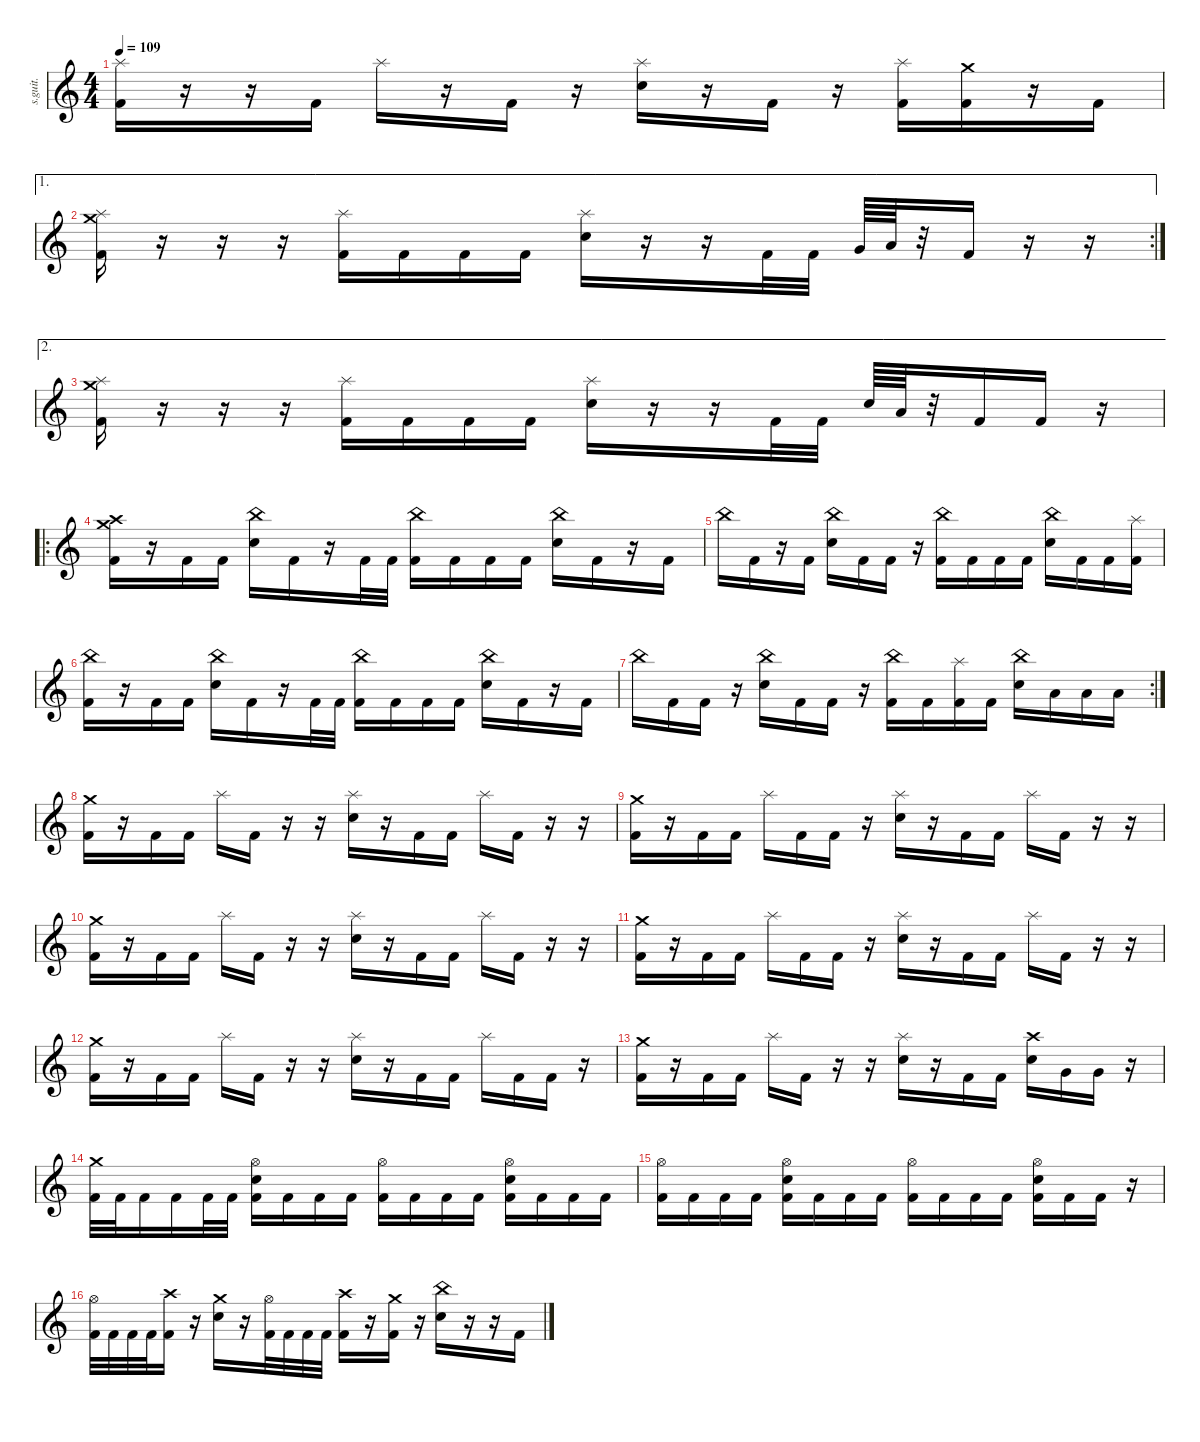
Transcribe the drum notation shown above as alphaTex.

\defaultSystemsLayout 4
\hideDynamics
\bracketExtendMode nobrackets
\track ("Drumkit" "s.guit.") {instrument percussion}
\staff {score}
\articulation defaults
\ts (4 4)
\tempo 109
\clef g2
\ks c
("Splash (hit)" "Kick (hit) 2").16{lyrics (0 "") lyrics (1 "") lyrics (2 "") lyrics (3 "") lyrics (4 "") dy f} r.16 r.16 "Kick (hit) 2".16{lyrics (0 "") lyrics (1 "") lyrics (2 "") lyrics (3 "") lyrics (4 "")} "Splash (hit)".16{lyrics (0 "") lyrics (1 "") lyrics (2 "") lyrics (3 "") lyrics (4 "")} r.16 "Kick (hit) 2".16{lyrics (0 "") lyrics (1 "") lyrics (2 "") lyrics (3 "") lyrics (4 "")} r.16 ("Splash (hit)" "Electric Snare (hit)").16{lyrics (0 "") lyrics (1 "") lyrics (2 "") lyrics (3 "") lyrics (4 "")} r.16 "Kick (hit) 2".16{lyrics (0 "") lyrics (1 "") lyrics (2 "") lyrics (3 "") lyrics (4 "")} r.16 ("Splash (hit)" "Kick (hit) 2").16{lyrics (0 "") lyrics (1 "") lyrics (2 "") lyrics (3 "") lyrics (4 "")} ("Crash medium (hit)" "Kick (hit) 2").16{lyrics (0 "") lyrics (1 "") lyrics (2 "") lyrics (3 "") lyrics (4 "")} r.16 "Kick (hit) 2".16{lyrics (0 "") lyrics (1 "") lyrics (2 "") lyrics (3 "") lyrics (4 "")} |
\ae 1
\rc 2
("Crash medium (hit)" "Splash (hit)" "Kick (hit) 2").16{lyrics (0 "") lyrics (1 "") lyrics (2 "") lyrics (3 "") lyrics (4 "")} r.16 r.16 r.16 ("Splash (hit)" "Kick (hit) 2").16{lyrics (0 "") lyrics (1 "") lyrics (2 "") lyrics (3 "") lyrics (4 "")} "Kick (hit) 2".16{lyrics (0 "") lyrics (1 "") lyrics (2 "") lyrics (3 "") lyrics (4 "")} "Kick (hit) 2".16{lyrics (0 "") lyrics (1 "") lyrics (2 "") lyrics (3 "") lyrics (4 "")} "Kick (hit) 2".16{lyrics (0 "") lyrics (1 "") lyrics (2 "") lyrics (3 "") lyrics (4 "")} ("Splash (hit)" "Electric Snare (hit)").16{lyrics (0 "") lyrics (1 "") lyrics (2 "") lyrics (3 "") lyrics (4 "")} r.16 r.16 "Kick (hit) 2".32{lyrics (0 "") lyrics (1 "") lyrics (2 "") lyrics (3 "") lyrics (4 "")} "Kick (hit) 2".32{lyrics (0 "") lyrics (1 "") lyrics (2 "") lyrics (3 "") lyrics (4 "")} "Very Low Tom (hit)".64{lyrics (0 "") lyrics (1 "") lyrics (2 "") lyrics (3 "") lyrics (4 "")} "Low Tom (hit)".64{lyrics (0 "") lyrics (1 "") lyrics (2 "") lyrics (3 "") lyrics (4 "")} r.32 "Kick (hit) 2".16{lyrics (0 "") lyrics (1 "") lyrics (2 "") lyrics (3 "") lyrics (4 "")} r.16 r.16 |
\ae 2
("Crash medium (hit)" "Splash (hit)" "Kick (hit) 2").16{lyrics (0 "") lyrics (1 "") lyrics (2 "") lyrics (3 "") lyrics (4 "")} r.16 r.16 r.16 ("Splash (hit)" "Kick (hit) 2").16{lyrics (0 "") lyrics (1 "") lyrics (2 "") lyrics (3 "") lyrics (4 "")} "Kick (hit) 2".16{lyrics (0 "") lyrics (1 "") lyrics (2 "") lyrics (3 "") lyrics (4 "")} "Kick (hit) 2".16{lyrics (0 "") lyrics (1 "") lyrics (2 "") lyrics (3 "") lyrics (4 "")} "Kick (hit) 2".16{lyrics (0 "") lyrics (1 "") lyrics (2 "") lyrics (3 "") lyrics (4 "")} ("Splash (hit)" "Electric Snare (hit)").16{lyrics (0 "") lyrics (1 "") lyrics (2 "") lyrics (3 "") lyrics (4 "")} r.16 r.16 "Kick (hit) 2".32{lyrics (0 "") lyrics (1 "") lyrics (2 "") lyrics (3 "") lyrics (4 "")} "Kick (hit) 2".32{lyrics (0 "") lyrics (1 "") lyrics (2 "") lyrics (3 "") lyrics (4 "")} "Electric Snare (hit)".64{lyrics (0 "") lyrics (1 "") lyrics (2 "") lyrics (3 "") lyrics (4 "")} "Low Floor Tom (hit)".64{lyrics (0 "") lyrics (1 "") lyrics (2 "") lyrics (3 "") lyrics (4 "")} r.32 "Kick (hit) 2".16{lyrics (0 "") lyrics (1 "") lyrics (2 "") lyrics (3 "") lyrics (4 "")} "Kick (hit) 2".16{lyrics (0 "") lyrics (1 "") lyrics (2 "") lyrics (3 "") lyrics (4 "")} r.16 |
\ro
("Crash high (hit)" "Crash medium (hit)" "Kick (hit) 2").16{lyrics (0 "") lyrics (1 "") lyrics (2 "") lyrics (3 "") lyrics (4 "")} r.16 "Kick (hit) 2".16{lyrics (0 "") lyrics (1 "") lyrics (2 "") lyrics (3 "") lyrics (4 "")} "Kick (hit) 2".16{lyrics (0 "") lyrics (1 "") lyrics (2 "") lyrics (3 "") lyrics (4 "")} ("China (hit)" "Electric Snare (hit)").16{lyrics (0 "") lyrics (1 "") lyrics (2 "") lyrics (3 "") lyrics (4 "")} "Kick (hit) 2".16{lyrics (0 "") lyrics (1 "") lyrics (2 "") lyrics (3 "") lyrics (4 "")} r.16 "Kick (hit) 2".32{lyrics (0 "") lyrics (1 "") lyrics (2 "") lyrics (3 "") lyrics (4 "")} "Kick (hit) 2".32{lyrics (0 "") lyrics (1 "") lyrics (2 "") lyrics (3 "") lyrics (4 "")} ("China (hit)" "Kick (hit) 2").16{lyrics (0 "") lyrics (1 "") lyrics (2 "") lyrics (3 "") lyrics (4 "")} "Kick (hit) 2".16{lyrics (0 "") lyrics (1 "") lyrics (2 "") lyrics (3 "") lyrics (4 "")} "Kick (hit) 2".16{lyrics (0 "") lyrics (1 "") lyrics (2 "") lyrics (3 "") lyrics (4 "")} "Kick (hit) 2".16{lyrics (0 "") lyrics (1 "") lyrics (2 "") lyrics (3 "") lyrics (4 "")} ("China (hit)" "Electric Snare (hit)").16{lyrics (0 "") lyrics (1 "") lyrics (2 "") lyrics (3 "") lyrics (4 "")} "Kick (hit) 2".16{lyrics (0 "") lyrics (1 "") lyrics (2 "") lyrics (3 "") lyrics (4 "")} r.16 "Kick (hit) 2".16{lyrics (0 "") lyrics (1 "") lyrics (2 "") lyrics (3 "") lyrics (4 "")} |
"China (hit)".16{lyrics (0 "") lyrics (1 "") lyrics (2 "") lyrics (3 "") lyrics (4 "")} "Kick (hit) 2".16{lyrics (0 "") lyrics (1 "") lyrics (2 "") lyrics (3 "") lyrics (4 "")} r.16 "Kick (hit) 2".16{lyrics (0 "") lyrics (1 "") lyrics (2 "") lyrics (3 "") lyrics (4 "")} ("China (hit)" "Electric Snare (hit)").16{lyrics (0 "") lyrics (1 "") lyrics (2 "") lyrics (3 "") lyrics (4 "")} "Kick (hit) 2".16{lyrics (0 "") lyrics (1 "") lyrics (2 "") lyrics (3 "") lyrics (4 "")} "Kick (hit) 2".16{lyrics (0 "") lyrics (1 "") lyrics (2 "") lyrics (3 "") lyrics (4 "")} r.16 ("China (hit)" "Kick (hit) 2").16{lyrics (0 "") lyrics (1 "") lyrics (2 "") lyrics (3 "") lyrics (4 "")} "Kick (hit) 2".16{lyrics (0 "") lyrics (1 "") lyrics (2 "") lyrics (3 "") lyrics (4 "")} "Kick (hit) 2".16{lyrics (0 "") lyrics (1 "") lyrics (2 "") lyrics (3 "") lyrics (4 "")} "Kick (hit) 2".16{lyrics (0 "") lyrics (1 "") lyrics (2 "") lyrics (3 "") lyrics (4 "")} ("China (hit)" "Electric Snare (hit)").16{lyrics (0 "") lyrics (1 "") lyrics (2 "") lyrics (3 "") lyrics (4 "")} "Kick (hit) 2".16{lyrics (0 "") lyrics (1 "") lyrics (2 "") lyrics (3 "") lyrics (4 "")} "Kick (hit) 2".16{lyrics (0 "") lyrics (1 "") lyrics (2 "") lyrics (3 "") lyrics (4 "")} ("Splash (hit)" "Kick (hit) 2").16{lyrics (0 "") lyrics (1 "") lyrics (2 "") lyrics (3 "") lyrics (4 "")} |
("China (hit)" "Kick (hit) 2").16{lyrics (0 "") lyrics (1 "") lyrics (2 "") lyrics (3 "") lyrics (4 "")} r.16 "Kick (hit) 2".16{lyrics (0 "") lyrics (1 "") lyrics (2 "") lyrics (3 "") lyrics (4 "")} "Kick (hit) 2".16{lyrics (0 "") lyrics (1 "") lyrics (2 "") lyrics (3 "") lyrics (4 "")} ("China (hit)" "Electric Snare (hit)").16{lyrics (0 "") lyrics (1 "") lyrics (2 "") lyrics (3 "") lyrics (4 "")} "Kick (hit) 2".16{lyrics (0 "") lyrics (1 "") lyrics (2 "") lyrics (3 "") lyrics (4 "")} r.16 "Kick (hit) 2".32{lyrics (0 "") lyrics (1 "") lyrics (2 "") lyrics (3 "") lyrics (4 "")} "Kick (hit) 2".32{lyrics (0 "") lyrics (1 "") lyrics (2 "") lyrics (3 "") lyrics (4 "")} ("China (hit)" "Kick (hit) 2").16{lyrics (0 "") lyrics (1 "") lyrics (2 "") lyrics (3 "") lyrics (4 "")} "Kick (hit) 2".16{lyrics (0 "") lyrics (1 "") lyrics (2 "") lyrics (3 "") lyrics (4 "")} "Kick (hit) 2".16{lyrics (0 "") lyrics (1 "") lyrics (2 "") lyrics (3 "") lyrics (4 "")} "Kick (hit) 2".16{lyrics (0 "") lyrics (1 "") lyrics (2 "") lyrics (3 "") lyrics (4 "")} ("China (hit)" "Electric Snare (hit)").16{lyrics (0 "") lyrics (1 "") lyrics (2 "") lyrics (3 "") lyrics (4 "")} "Kick (hit) 2".16{lyrics (0 "") lyrics (1 "") lyrics (2 "") lyrics (3 "") lyrics (4 "")} r.16 "Kick (hit) 2".16{lyrics (0 "") lyrics (1 "") lyrics (2 "") lyrics (3 "") lyrics (4 "")} |
\rc 2 "China (hit)".16{lyrics (0 "") lyrics (1 "") lyrics (2 "") lyrics (3 "") lyrics (4 "")} "Kick (hit) 2".16{lyrics (0 "") lyrics (1 "") lyrics (2 "") lyrics (3 "") lyrics (4 "")} "Kick (hit) 2".16{lyrics (0 "") lyrics (1 "") lyrics (2 "") lyrics (3 "") lyrics (4 "")}
r.16 ("China (hit)" "Electric Snare (hit)").16{lyrics (0 "") lyrics (1 "") lyrics (2 "") lyrics (3 "") lyrics (4 "")} "Kick (hit) 2".16{lyrics (0 "") lyrics (1 "") lyrics (2 "") lyrics (3 "") lyrics (4 "")} "Kick (hit) 2".16{lyrics (0 "") lyrics (1 "") lyrics (2 "") lyrics (3 "") lyrics (4 "")} r.16 ("China (hit)" "Kick (hit) 2").16{lyrics (0 "") lyrics (1 "") lyrics (2 "") lyrics (3 "") lyrics (4 "")} "Kick (hit) 2".16{lyrics (0 "") lyrics (1 "") lyrics (2 "") lyrics (3 "") lyrics (4 "")} ("Splash (hit)" "Kick (hit) 2").16{lyrics (0 "") lyrics (1 "") lyrics (2 "") lyrics (3 "") lyrics (4 "")} "Kick (hit) 2".16{lyrics (0 "") lyrics (1 "") lyrics (2 "") lyrics (3 "") lyrics (4 "")} ("China (hit)" "Electric Snare (hit)").16{lyrics (0 "") lyrics (1 "") lyrics (2 "") lyrics (3 "") lyrics (4 "")} "Low Floor Tom (hit)".16{lyrics (0 "") lyrics (1 "") lyrics (2 "") lyrics (3 "") lyrics (4 "")} "Low Floor Tom (hit)".16{lyrics (0 "") lyrics (1 "") lyrics (2 "") lyrics (3 "") lyrics (4 "")} "Low Floor Tom (hit)".16{lyrics (0 "") lyrics (1 "") lyrics (2 "") lyrics (3 "") lyrics (4 "")} |
("Crash medium (hit)" "Kick (hit) 2").16{lyrics (0 "") lyrics (1 "") lyrics (2 "") lyrics (3 "") lyrics (4 "")} r.16 "Kick (hit) 2".16{lyrics (0 "") lyrics (1 "") lyrics (2 "") lyrics (3 "") lyrics (4 "")} "Kick (hit) 2".16{lyrics (0 "") lyrics (1 "") lyrics (2 "") lyrics (3 "") lyrics (4 "")} "Splash (hit)".16{lyrics (0 "") lyrics (1 "") lyrics (2 "") lyrics (3 "") lyrics (4 "")} "Kick (hit) 2".16{lyrics (0 "") lyrics (1 "") lyrics (2 "") lyrics (3 "") lyrics (4 "")} r.16 r.16 ("Splash (hit)" "Electric Snare (hit)").16{lyrics (0 "") lyrics (1 "") lyrics (2 "") lyrics (3 "") lyrics (4 "")} r.16 "Kick (hit) 2".16{lyrics (0 "") lyrics (1 "") lyrics (2 "") lyrics (3 "") lyrics (4 "")} "Kick (hit) 2".16{lyrics (0 "") lyrics (1 "") lyrics (2 "") lyrics (3 "") lyrics (4 "")} "Splash (hit)".16{lyrics (0 "") lyrics (1 "") lyrics (2 "") lyrics (3 "") lyrics (4 "")} "Kick (hit) 2".16{lyrics (0 "") lyrics (1 "") lyrics (2 "") lyrics (3 "") lyrics (4 "")} r.16 r.16 |
("Crash medium (hit)" "Kick (hit) 2").16{lyrics (0 "") lyrics (1 "") lyrics (2 "") lyrics (3 "") lyrics (4 "")} r.16 "Kick (hit) 2".16{lyrics (0 "") lyrics (1 "") lyrics (2 "") lyrics (3 "") lyrics (4 "")} "Kick (hit) 2".16{lyrics (0 "") lyrics (1 "") lyrics (2 "") lyrics (3 "") lyrics (4 "")} "Splash (hit)".16{lyrics (0 "") lyrics (1 "") lyrics (2 "") lyrics (3 "") lyrics (4 "")} "Kick (hit) 2".16{lyrics (0 "") lyrics (1 "") lyrics (2 "") lyrics (3 "") lyrics (4 "")} "Kick (hit) 2".16{lyrics (0 "") lyrics (1 "") lyrics (2 "") lyrics (3 "") lyrics (4 "")} r.16 ("Splash (hit)" "Electric Snare (hit)").16{lyrics (0 "") lyrics (1 "") lyrics (2 "") lyrics (3 "") lyrics (4 "")} r.16 "Kick (hit) 2".16{lyrics (0 "") lyrics (1 "") lyrics (2 "") lyrics (3 "") lyrics (4 "")} "Kick (hit) 2".16{lyrics (0 "") lyrics (1 "") lyrics (2 "") lyrics (3 "") lyrics (4 "")} "Splash (hit)".16{lyrics (0 "") lyrics (1 "") lyrics (2 "") lyrics (3 "") lyrics (4 "")} "Kick (hit) 2".16{lyrics (0 "") lyrics (1 "") lyrics (2 "") lyrics (3 "") lyrics (4 "")} r.16 r.16 |
("Crash medium (hit)" "Kick (hit) 2").16{lyrics (0 "") lyrics (1 "") lyrics (2 "") lyrics (3 "") lyrics (4 "")} r.16 "Kick (hit) 2".16{lyrics (0 "") lyrics (1 "") lyrics (2 "") lyrics (3 "") lyrics (4 "")} "Kick (hit) 2".16{lyrics (0 "") lyrics (1 "") lyrics (2 "") lyrics (3 "") lyrics (4 "")} "Splash (hit)".16{lyrics (0 "") lyrics (1 "") lyrics (2 "") lyrics (3 "") lyrics (4 "")} "Kick (hit) 2".16{lyrics (0 "") lyrics (1 "") lyrics (2 "") lyrics (3 "") lyrics (4 "")} r.16 r.16 ("Splash (hit)" "Electric Snare (hit)").16{lyrics (0 "") lyrics (1 "") lyrics (2 "") lyrics (3 "") lyrics (4 "")} r.16 "Kick (hit) 2".16{lyrics (0 "") lyrics (1 "") lyrics (2 "") lyrics (3 "") lyrics (4 "")} "Kick (hit) 2".16{lyrics (0 "") lyrics (1 "") lyrics (2 "") lyrics (3 "") lyrics (4 "")} "Splash (hit)".16{lyrics (0 "") lyrics (1 "") lyrics (2 "") lyrics (3 "") lyrics (4 "")} "Kick (hit) 2".16{lyrics (0 "") lyrics (1 "") lyrics (2 "") lyrics (3 "") lyrics (4 "")} r.16 r.16 |
("Crash medium (hit)" "Kick (hit) 2").16{lyrics (0 "") lyrics (1 "") lyrics (2 "") lyrics (3 "") lyrics (4 "")} r.16 "Kick (hit) 2".16{lyrics (0 "") lyrics (1 "") lyrics (2 "") lyrics (3 "") lyrics (4 "")} "Kick (hit) 2".16{lyrics (0 "") lyrics (1 "") lyrics (2 "") lyrics (3 "") lyrics (4 "")} "Splash (hit)".16{lyrics (0 "") lyrics (1 "") lyrics (2 "") lyrics (3 "") lyrics (4 "")} "Kick (hit) 2".16{lyrics (0 "") lyrics (1 "") lyrics (2 "") lyrics (3 "") lyrics (4 "")} "Kick (hit) 2".16{lyrics (0 "") lyrics (1 "") lyrics (2 "") lyrics (3 "") lyrics (4 "")} r.16 ("Splash (hit)" "Electric Snare (hit)").16{lyrics (0 "") lyrics (1 "") lyrics (2 "") lyrics (3 "") lyrics (4 "")} r.16 "Kick (hit) 2".16{lyrics (0 "") lyrics (1 "") lyrics (2 "") lyrics (3 "") lyrics (4 "")} "Kick (hit) 2".16{lyrics (0 "") lyrics (1 "") lyrics (2 "") lyrics (3 "") lyrics (4 "")} "Splash (hit)".16{lyrics (0 "") lyrics (1 "") lyrics (2 "") lyrics (3 "") lyrics (4 "")} "Kick (hit) 2".16{lyrics (0 "") lyrics (1 "") lyrics (2 "") lyrics (3 "") lyrics (4 "")} r.16 r.16 |
("Crash medium (hit)" "Kick (hit) 2").16{lyrics (0 "") lyrics (1 "") lyrics (2 "") lyrics (3 "") lyrics (4 "")} r.16 "Kick (hit) 2".16{lyrics (0 "") lyrics (1 "") lyrics (2 "") lyrics (3 "") lyrics (4 "")} "Kick (hit) 2".16{lyrics (0 "") lyrics (1 "") lyrics (2 "") lyrics (3 "") lyrics (4 "")} "Splash (hit)".16{lyrics (0 "") lyrics (1 "") lyrics (2 "") lyrics (3 "") lyrics (4 "")} "Kick (hit) 2".16{lyrics (0 "") lyrics (1 "") lyrics (2 "") lyrics (3 "") lyrics (4 "")} r.16 r.16 ("Splash (hit)" "Electric Snare (hit)").16{lyrics (0 "") lyrics (1 "") lyrics (2 "") lyrics (3 "") lyrics (4 "")} r.16 "Kick (hit) 2".16{lyrics (0 "") lyrics (1 "") lyrics (2 "") lyrics (3 "") lyrics (4 "")} "Kick (hit) 2".16{lyrics (0 "") lyrics (1 "") lyrics (2 "") lyrics (3 "") lyrics (4 "")} "Splash (hit)".16{lyrics (0 "") lyrics (1 "") lyrics (2 "") lyrics (3 "") lyrics (4 "")} "Kick (hit) 2".16{lyrics (0 "") lyrics (1 "") lyrics (2 "") lyrics (3 "") lyrics (4 "")} "Kick (hit) 2".16{lyrics (0 "") lyrics (1 "") lyrics (2 "") lyrics (3 "") lyrics (4 "")} r.16 |
("Crash medium (hit)" "Kick (hit) 2").16{lyrics (0 "") lyrics (1 "") lyrics (2 "") lyrics (3 "") lyrics (4 "")} r.16 "Kick (hit) 2".16{lyrics (0 "") lyrics (1 "") lyrics (2 "") lyrics (3 "") lyrics (4 "")} "Kick (hit) 2".16{lyrics (0 "") lyrics (1 "") lyrics (2 "") lyrics (3 "") lyrics (4 "")} "Splash (hit)".16{lyrics (0 "") lyrics (1 "") lyrics (2 "") lyrics (3 "") lyrics (4 "")} "Kick (hit) 2".16{lyrics (0 "") lyrics (1 "") lyrics (2 "") lyrics (3 "") lyrics (4 "")} r.16 r.16 ("Splash (hit)" "Electric Snare (hit)").16{lyrics (0 "") lyrics (1 "") lyrics (2 "") lyrics (3 "") lyrics (4 "")} r.16 "Kick (hit) 2".16{lyrics (0 "") lyrics (1 "") lyrics (2 "") lyrics (3 "") lyrics (4 "")} "Kick (hit) 2".16{lyrics (0 "") lyrics (1 "") lyrics (2 "") lyrics (3 "") lyrics (4 "")} ("Crash high (hit)" "Electric Snare (hit)").16{lyrics (0 "") lyrics (1 "") lyrics (2 "") lyrics (3 "") lyrics (4 "")} "Very Low Tom (hit)".16{lyrics (0 "") lyrics (1 "") lyrics (2 "") lyrics (3 "") lyrics (4 "")} "Very Low Tom (hit)".16{lyrics (0 "") lyrics (1 "") lyrics (2 "") lyrics (3 "") lyrics (4 "")} r.16 |
("Crash medium (hit)" "Kick (hit) 2").32{lyrics (0 "") lyrics (1 "") lyrics (2 "") lyrics (3 "") lyrics (4 "")} "Kick (hit) 2".32{lyrics (0 "") lyrics (1 "") lyrics (2 "") lyrics (3 "") lyrics (4 "")} "Kick (hit) 2".16{lyrics (0 "") lyrics (1 "") lyrics (2 "") lyrics (3 "") lyrics (4 "")} "Kick (hit) 2".16{lyrics (0 "") lyrics (1 "") lyrics (2 "") lyrics (3 "") lyrics (4 "")} "Kick (hit) 2".32{lyrics (0 "") lyrics (1 "") lyrics (2 "") lyrics (3 "") lyrics (4 "")} "Kick (hit) 2".32{lyrics (0 "") lyrics (1 "") lyrics (2 "") lyrics (3 "") lyrics (4 "")} ("Hi-Hat (open)" "Electric Snare (hit)" "Kick (hit) 2").16{lyrics (0 "") lyrics (1 "") lyrics (2 "") lyrics (3 "") lyrics (4 "")} "Kick (hit) 2".16{lyrics (0 "") lyrics (1 "") lyrics (2 "") lyrics (3 "") lyrics (4 "")} "Kick (hit) 2".16{lyrics (0 "") lyrics (1 "") lyrics (2 "") lyrics (3 "") lyrics (4 "")} "Kick (hit) 2".16{lyrics (0 "") lyrics (1 "") lyrics (2 "") lyrics (3 "") lyrics (4 "")} ("Hi-Hat (open)" "Kick (hit) 2").16{lyrics (0 "") lyrics (1 "") lyrics (2 "") lyrics (3 "") lyrics (4 "")} "Kick (hit) 2".16{lyrics (0 "") lyrics (1 "") lyrics (2 "") lyrics (3 "") lyrics (4 "")} "Kick (hit) 2".16{lyrics (0 "") lyrics (1 "") lyrics (2 "") lyrics (3 "") lyrics (4 "")} "Kick (hit) 2".16{lyrics (0 "") lyrics (1 "") lyrics (2 "") lyrics (3 "") lyrics (4 "")} ("Hi-Hat (open)" "Electric Snare (hit)" "Kick (hit) 2").16{lyrics (0 "") lyrics (1 "") lyrics (2 "") lyrics (3 "") lyrics (4 "")} "Kick (hit) 2".16{lyrics (0 "") lyrics (1 "") lyrics (2 "") lyrics (3 "") lyrics (4 "")} "Kick (hit) 2".16{lyrics (0 "") lyrics (1 "") lyrics (2 "") lyrics (3 "") lyrics (4 "")} "Kick (hit) 2".16{lyrics (0 "") lyrics (1 "") lyrics (2 "") lyrics (3 "") lyrics (4 "")} |
("Hi-Hat (open)" "Kick (hit) 2").16{lyrics (0 "") lyrics (1 "") lyrics (2 "") lyrics (3 "") lyrics (4 "")} "Kick (hit) 2".16{lyrics (0 "") lyrics (1 "") lyrics (2 "") lyrics (3 "") lyrics (4 "")} "Kick (hit) 2".16{lyrics (0 "") lyrics (1 "") lyrics (2 "") lyrics (3 "") lyrics (4 "")} "Kick (hit) 2".16{lyrics (0 "") lyrics (1 "") lyrics (2 "") lyrics (3 "") lyrics (4 "")} ("Hi-Hat (open)" "Electric Snare (hit)" "Kick (hit) 2").16{lyrics (0 "") lyrics (1 "") lyrics (2 "") lyrics (3 "") lyrics (4 "")} "Kick (hit) 2".16{lyrics (0 "") lyrics (1 "") lyrics (2 "") lyrics (3 "") lyrics (4 "")} "Kick (hit) 2".16{lyrics (0 "") lyrics (1 "") lyrics (2 "") lyrics (3 "") lyrics (4 "")} "Kick (hit) 2".16{lyrics (0 "") lyrics (1 "") lyrics (2 "") lyrics (3 "") lyrics (4 "")} ("Hi-Hat (open)" "Kick (hit) 2").16{lyrics (0 "") lyrics (1 "") lyrics (2 "") lyrics (3 "") lyrics (4 "")} "Kick (hit) 2".16{lyrics (0 "") lyrics (1 "") lyrics (2 "") lyrics (3 "") lyrics (4 "")} "Kick (hit) 2".16{lyrics (0 "") lyrics (1 "") lyrics (2 "") lyrics (3 "") lyrics (4 "")} "Kick (hit) 2".16{lyrics (0 "") lyrics (1 "") lyrics (2 "") lyrics (3 "") lyrics (4 "")} ("Hi-Hat (open)" "Electric Snare (hit)" "Kick (hit) 2").16{lyrics (0 "") lyrics (1 "") lyrics (2 "") lyrics (3 "") lyrics (4 "")} "Kick (hit) 2".16{lyrics (0 "") lyrics (1 "") lyrics (2 "") lyrics (3 "") lyrics (4 "")} "Kick (hit) 2".16{lyrics (0 "") lyrics (1 "") lyrics (2 "") lyrics (3 "") lyrics (4 "")} r.16 |
("Hi-Hat (open)" "Kick (hit) 2").32{lyrics (0 "") lyrics (1 "") lyrics (2 "") lyrics (3 "") lyrics (4 "")} "Kick (hit) 2".32{lyrics (0 "") lyrics (1 "") lyrics (2 "") lyrics (3 "") lyrics (4 "")} "Kick (hit) 2".32{lyrics (0 "") lyrics (1 "") lyrics (2 "") lyrics (3 "") lyrics (4 "")} "Kick (hit) 2".32{lyrics (0 "") lyrics (1 "") lyrics (2 "") lyrics (3 "") lyrics (4 "")} ("Crash high (hit)" "Kick (hit) 2").16{lyrics (0 "") lyrics (1 "") lyrics (2 "") lyrics (3 "") lyrics (4 "")} r.16 ("Crash medium (hit)" "Electric Snare (hit)").16{lyrics (0 "") lyrics (1 "") lyrics (2 "") lyrics (3 "") lyrics (4 "")} r.16 ("Hi-Hat (open)" "Kick (hit) 2").32{lyrics (0 "") lyrics (1 "") lyrics (2 "") lyrics (3 "") lyrics (4 "")} "Kick (hit) 2".32{lyrics (0 "") lyrics (1 "") lyrics (2 "") lyrics (3 "") lyrics (4 "")} "Kick (hit) 2".32{lyrics (0 "") lyrics (1 "") lyrics (2 "") lyrics (3 "") lyrics (4 "")} "Kick (hit) 2".32{lyrics (0 "") lyrics (1 "") lyrics (2 "") lyrics (3 "") lyrics (4 "")} ("Crash high (hit)" "Kick (hit) 2").16{lyrics (0 "") lyrics (1 "") lyrics (2 "") lyrics (3 "") lyrics (4 "")} r.16 ("Crash medium (hit)" "Kick (hit) 2").16{lyrics (0 "") lyrics (1 "") lyrics (2 "") lyrics (3 "") lyrics (4 "")} r.16 ("China (hit)" "Electric Snare (hit)").16{lyrics (0 "") lyrics (1 "") lyrics (2 "") lyrics (3 "") lyrics (4 "")} r.16 r.16 "Kick (hit) 2".16{lyrics (0 "") lyrics (1 "") lyrics (2 "") lyrics (3 "") lyrics (4 "")}
